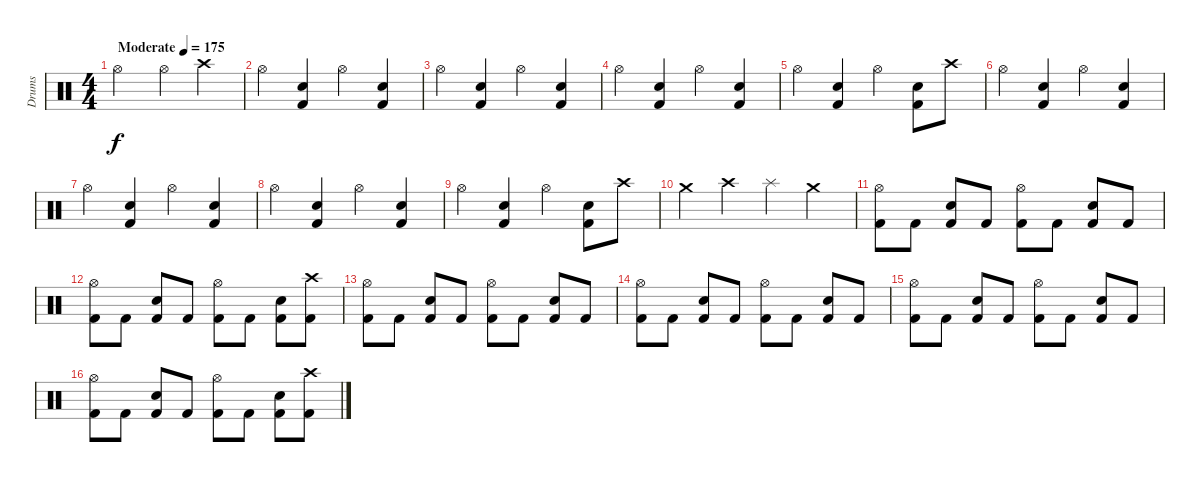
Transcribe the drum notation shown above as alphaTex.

\track ("Drums" "Drums") {instrument percussion}
\staff {score}
\articulation defaults
\ts (4 4)
\tempo (175 "Moderate")
\clef neutral
\ks c "Hi-Hat (open)".2{dy f} "Hi-Hat (open)".4 "Crash high (hit)".4
|
"Hi-Hat (open)".4 ("Electric Snare (hit)" "Kick (hit) 2").4 "Hi-Hat (open)".4 ("Electric Snare (hit)" "Kick (hit) 2").4 |
"Hi-Hat (open)".4 ("Electric Snare (hit)" "Kick (hit) 2").4 "Hi-Hat (open)".4 ("Electric Snare (hit)" "Kick (hit) 2").4 |
"Hi-Hat (open)".4 ("Electric Snare (hit)" "Kick (hit) 2").4 "Hi-Hat (open)".4 ("Electric Snare (hit)" "Kick (hit) 2").4 |
"Hi-Hat (open)".4 ("Electric Snare (hit)" "Kick (hit) 2").4 "Hi-Hat (open)".4 ("Electric Snare (hit)" "Kick (hit) 2").8 "Crash high (hit)".8 |
"Hi-Hat (open)".4 ("Electric Snare (hit)" "Kick (hit) 2").4 "Hi-Hat (open)".4 ("Electric Snare (hit)" "Kick (hit) 2").4 |
"Hi-Hat (open)".4 ("Electric Snare (hit)" "Kick (hit) 2").4 "Hi-Hat (open)".4 ("Electric Snare (hit)" "Kick (hit) 2").4 |
"Hi-Hat (open)".4 ("Electric Snare (hit)" "Kick (hit) 2").4 "Hi-Hat (open)".4 ("Electric Snare (hit)" "Kick (hit) 2").4 |
"Hi-Hat (open)".4 ("Electric Snare (hit)" "Kick (hit) 2").4 "Hi-Hat (open)".4 ("Electric Snare (hit)" "Kick (hit) 2").8 "Crash high (hit)".8 |
"Crash medium (hit)".4 "Crash high (hit)".4 "Splash (hit)".4 "Crash medium (hit)".4 |
("Hi-Hat (open)" "Kick (hit) 2").8 "Kick (hit) 2".8 ("Electric Snare (hit)" "Kick (hit) 2").8 "Kick (hit) 2".8 ("Hi-Hat (open)" "Kick (hit) 2").8 "Kick (hit) 2".8 ("Electric Snare (hit)" "Kick (hit) 2").8 "Kick (hit) 2".8 |
("Hi-Hat (open)" "Kick (hit) 2").8 "Kick (hit) 2".8 ("Electric Snare (hit)" "Kick (hit) 2").8 "Kick (hit) 2".8 ("Hi-Hat (open)" "Kick (hit) 2").8 "Kick (hit) 2".8 ("Electric Snare (hit)" "Kick (hit) 2").8 ("Crash high (hit)" "Kick (hit) 2").8 |
("Hi-Hat (open)" "Kick (hit) 2").8 "Kick (hit) 2".8 ("Electric Snare (hit)" "Kick (hit) 2").8 "Kick (hit) 2".8 ("Hi-Hat (open)" "Kick (hit) 2").8 "Kick (hit) 2".8 ("Electric Snare (hit)" "Kick (hit) 2").8 "Kick (hit) 2".8 |
("Hi-Hat (open)" "Kick (hit) 2").8 "Kick (hit) 2".8 ("Electric Snare (hit)" "Kick (hit) 2").8 "Kick (hit) 2".8 ("Hi-Hat (open)" "Kick (hit) 2").8 "Kick (hit) 2".8 ("Electric Snare (hit)" "Kick (hit) 2").8 "Kick (hit) 2".8 |
("Hi-Hat (open)" "Kick (hit) 2").8 "Kick (hit) 2".8 ("Electric Snare (hit)" "Kick (hit) 2").8 "Kick (hit) 2".8 ("Hi-Hat (open)" "Kick (hit) 2").8 "Kick (hit) 2".8 ("Electric Snare (hit)" "Kick (hit) 2").8 "Kick (hit) 2".8 |
("Hi-Hat (open)" "Kick (hit) 2").8 "Kick (hit) 2".8 ("Electric Snare (hit)" "Kick (hit) 2").8 "Kick (hit) 2".8 ("Hi-Hat (open)" "Kick (hit) 2").8 "Kick (hit) 2".8 ("Electric Snare (hit)" "Kick (hit) 2").8 ("Crash high (hit)" "Kick (hit) 2").8
